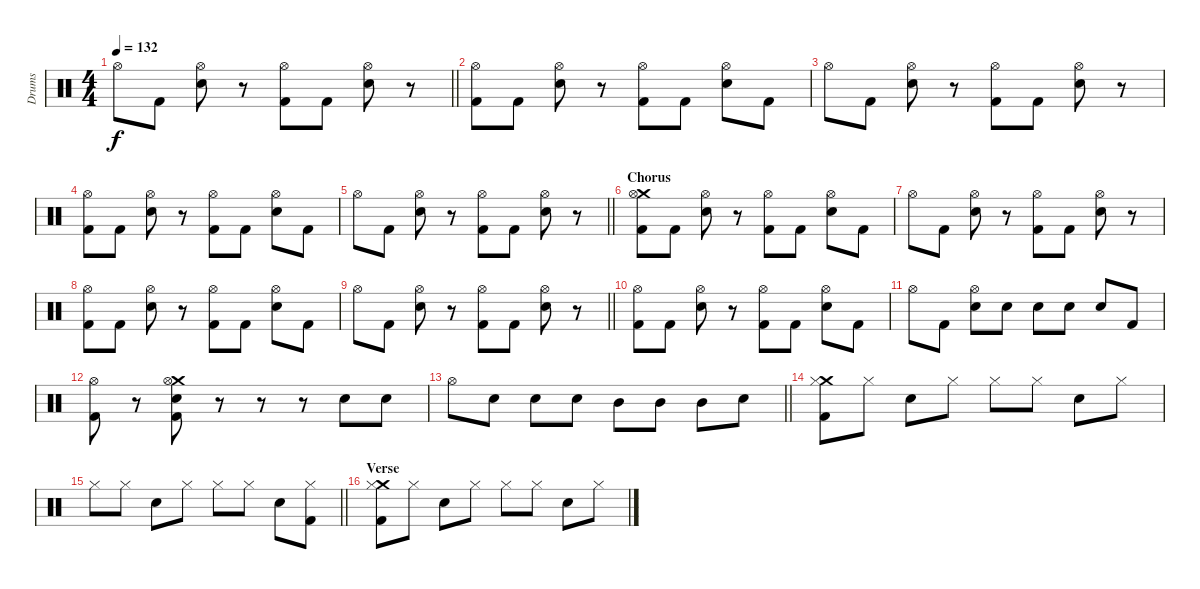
\track ("Drums" "Drums") {instrument percussion}
\staff
\articulation defaults
\ts (4 4)
\tempo 132
\clef neutral
\barLineRight lightlight
\ks c "Hi-Hat (open)".8{dy f} "Kick (hit) 2".8
("Hi-Hat (open)" "Snare (hit) 2").8 r.8 ("Hi-Hat (open)" "Kick (hit) 2").8 "Kick (hit) 2".8 ("Hi-Hat (open)" "Snare (hit) 2").8 r.8 |
("Hi-Hat (open)" "Kick (hit) 2").8 "Kick (hit) 2".8 ("Hi-Hat (open)" "Snare (hit) 2").8 r.8 ("Hi-Hat (open)" "Kick (hit) 2").8 "Kick (hit) 2".8 ("Hi-Hat (open)" "Snare (hit) 2").8 "Kick (hit) 2".8 |
"Hi-Hat (open)".8 "Kick (hit) 2".8 ("Hi-Hat (open)" "Snare (hit) 2").8 r.8 ("Hi-Hat (open)" "Kick (hit) 2").8 "Kick (hit) 2".8 ("Hi-Hat (open)" "Snare (hit) 2").8 r.8 |
("Hi-Hat (open)" "Kick (hit) 2").8 "Kick (hit) 2".8 ("Hi-Hat (open)" "Snare (hit) 2").8 r.8 ("Hi-Hat (open)" "Kick (hit) 2").8 "Kick (hit) 2".8 ("Hi-Hat (open)" "Snare (hit) 2").8 "Kick (hit) 2".8 |
\barLineRight lightlight "Hi-Hat (open)".8 "Kick (hit) 2".8
("Hi-Hat (open)" "Snare (hit) 2").8 r.8 ("Hi-Hat (open)" "Kick (hit) 2").8 "Kick (hit) 2".8 ("Hi-Hat (open)" "Snare (hit) 2").8 r.8 |
\section ("" "Chorus")
("Crash medium (hit)" "Hi-Hat (open)" "Kick (hit) 2").8 "Kick (hit) 2".8 ("Hi-Hat (open)" "Snare (hit) 2").8 r.8 ("Hi-Hat (open)" "Kick (hit) 2").8 "Kick (hit) 2".8 ("Hi-Hat (open)" "Snare (hit) 2").8 "Kick (hit) 2".8 |
"Hi-Hat (open)".8 "Kick (hit) 2".8 ("Hi-Hat (open)" "Snare (hit) 2").8 r.8 ("Hi-Hat (open)" "Kick (hit) 2").8 "Kick (hit) 2".8 ("Hi-Hat (open)" "Snare (hit) 2").8 r.8 |
("Hi-Hat (open)" "Kick (hit) 2").8 "Kick (hit) 2".8 ("Hi-Hat (open)" "Snare (hit) 2").8 r.8 ("Hi-Hat (open)" "Kick (hit) 2").8 "Kick (hit) 2".8 ("Hi-Hat (open)" "Snare (hit) 2").8 "Kick (hit) 2".8 |
\barLineRight lightlight "Hi-Hat (open)".8 "Kick (hit) 2".8
("Hi-Hat (open)" "Snare (hit) 2").8 r.8 ("Hi-Hat (open)" "Kick (hit) 2").8 "Kick (hit) 2".8 ("Hi-Hat (open)" "Snare (hit) 2").8 r.8 |
("Hi-Hat (open)" "Kick (hit) 2").8 "Kick (hit) 2".8 ("Hi-Hat (open)" "Snare (hit) 2").8 r.8 ("Hi-Hat (open)" "Kick (hit) 2").8 "Kick (hit) 2".8 ("Hi-Hat (open)" "Snare (hit) 2").8 "Kick (hit) 2".8 |
"Hi-Hat (open)".8 "Kick (hit) 2".8 ("Hi-Hat (open)" "Snare (hit) 2").8 "Snare (hit) 2".8 "Snare (hit) 2".8 "Snare (hit) 2".8 "Snare (hit) 2".8 "Kick (hit) 2".8 |
("Hi-Hat (open)" "Kick (hit) 2").8 r.8 ("Crash medium (hit)" "Hi-Hat (open)" "Snare (hit) 2" "Kick (hit) 2").8 r.8 r.8 r.8 "Snare (hit) 2".8 "Snare (hit) 2".8 |
\barLineRight lightlight "Hi-Hat (open)".8 "Snare (hit) 2".8 "Snare (hit) 2".8 "Snare (hit) 2".8 "Mid Tom (hit)".8 "Mid Tom (hit)".8 "Mid Tom (hit)".8 "Snare (hit) 2".8
|
("Crash medium (hit)" "Hi-Hat (closed)" "Kick (hit) 2").8 "Hi-Hat (closed)".8 "Snare (hit) 2".8 "Hi-Hat (closed)".8 "Hi-Hat (closed)".8 "Hi-Hat (closed)".8 "Snare (hit) 2".8 "Hi-Hat (closed)".8 |
\barLineRight lightlight "Hi-Hat (closed)".8 "Hi-Hat (closed)".8 "Snare (hit) 2".8 "Hi-Hat (closed)".8 "Hi-Hat (closed)".8 "Hi-Hat (closed)".8 "Snare (hit) 2".8
("Hi-Hat (closed)" "Kick (hit) 2").8 |
\section ("" "Verse")
("Crash medium (hit)" "Hi-Hat (closed)" "Kick (hit) 2").8 "Hi-Hat (closed)".8 "Snare (hit) 2".8 "Hi-Hat (closed)".8 "Hi-Hat (closed)".8 "Hi-Hat (closed)".8 "Snare (hit) 2".8 "Hi-Hat (closed)".8
